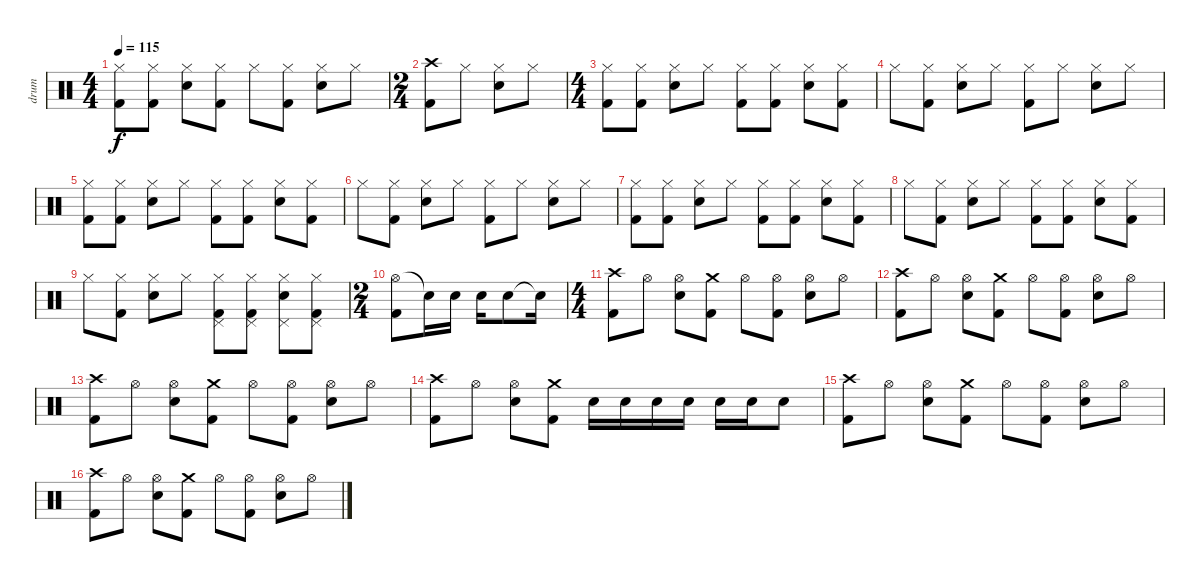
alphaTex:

\track ("drum" "drum") {instrument percussion}
\staff {score}
\articulation defaults
\ts (4 4)
\tempo 115
\clef neutral
\ks c
("Hi-Hat (closed)" "Kick (hit) 2").8{dy f} ("Hi-Hat (closed)" "Kick (hit) 2").8 ("Hi-Hat (closed)" "Snare (hit) 2").8 ("Hi-Hat (closed)" "Kick (hit) 2").8 "Hi-Hat (closed)".8 ("Hi-Hat (closed)" "Kick (hit) 2").8 ("Hi-Hat (closed)" "Snare (hit) 2").8 "Hi-Hat (closed)".8 |
\ts (2 4)
("Crash high (hit)" "Kick (hit) 2").8 "Hi-Hat (closed)".8 ("Hi-Hat (closed)" "Snare (hit) 2").8 "Hi-Hat (closed)".8 |
\ts (4 4)
("Hi-Hat (closed)" "Kick (hit) 2").8 ("Hi-Hat (closed)" "Kick (hit) 2").8 ("Hi-Hat (closed)" "Snare (hit) 2").8 "Hi-Hat (closed)".8 ("Hi-Hat (closed)" "Kick (hit) 2").8 ("Hi-Hat (closed)" "Kick (hit) 2").8 ("Hi-Hat (closed)" "Snare (hit) 2").8 ("Hi-Hat (closed)" "Kick (hit) 2").8 |
"Hi-Hat (closed)".8 ("Hi-Hat (closed)" "Kick (hit) 2").8 ("Hi-Hat (closed)" "Snare (hit) 2").8 "Hi-Hat (closed)".8 ("Hi-Hat (closed)" "Kick (hit) 2").8 "Hi-Hat (closed)".8 ("Hi-Hat (closed)" "Snare (hit) 2").8 "Hi-Hat (closed)".8 |
("Hi-Hat (closed)" "Kick (hit) 2").8 ("Hi-Hat (closed)" "Kick (hit) 2").8 ("Hi-Hat (closed)" "Snare (hit) 2").8 "Hi-Hat (closed)".8 ("Hi-Hat (closed)" "Kick (hit) 2").8 ("Hi-Hat (closed)" "Kick (hit) 2").8 ("Hi-Hat (closed)" "Snare (hit) 2").8 ("Hi-Hat (closed)" "Kick (hit) 2").8 |
"Hi-Hat (closed)".8 ("Hi-Hat (closed)" "Kick (hit) 2").8 ("Hi-Hat (closed)" "Snare (hit) 2").8 "Hi-Hat (closed)".8 ("Hi-Hat (closed)" "Kick (hit) 2").8 "Hi-Hat (closed)".8 ("Hi-Hat (closed)" "Snare (hit) 2").8 "Hi-Hat (closed)".8 |
("Hi-Hat (closed)" "Kick (hit) 2").8 ("Hi-Hat (closed)" "Kick (hit) 2").8 ("Hi-Hat (closed)" "Snare (hit) 2").8 "Hi-Hat (closed)".8 ("Hi-Hat (closed)" "Kick (hit) 2").8 ("Hi-Hat (closed)" "Kick (hit) 2").8 ("Hi-Hat (closed)" "Snare (hit) 2").8 ("Hi-Hat (closed)" "Kick (hit) 2").8 |
"Hi-Hat (closed)".8 ("Hi-Hat (closed)" "Kick (hit) 2").8 ("Hi-Hat (closed)" "Snare (hit) 2").8 "Hi-Hat (closed)".8 ("Hi-Hat (closed)" "Kick (hit) 2").8 ("Hi-Hat (closed)" "Kick (hit) 2").8 ("Hi-Hat (closed)" "Snare (hit) 2").8 ("Hi-Hat (closed)" "Kick (hit) 2").8 |
"Hi-Hat (closed)".8 ("Hi-Hat (closed)" "Kick (hit) 2").8 ("Hi-Hat (closed)" "Snare (hit) 2").8 "Hi-Hat (closed)".8 ("Hi-Hat (closed)" "Pedal Hi-Hat (hit)" "Kick (hit) 2").8 ("Hi-Hat (closed)" "Pedal Hi-Hat (hit)" "Kick (hit) 2").8 ("Hi-Hat (closed)" "Pedal Hi-Hat (hit)" "Electric Snare (hit)").8 ("Hi-Hat (closed)" "Pedal Hi-Hat (hit)" "Kick (hit) 2").8 |
\ts (2 4)
("Hi-Hat (open)" "Kick (hit) 2").8 "Snare (hit)"{t}.16 "Electric Snare (hit)".16 "Electric Snare (hit)".16 "Electric Snare (hit)".8 "Snare (hit)"{t}.16 |
\ts (4 4)
("Crash high (hit)" "Kick (hit) 2").8 "Hi-Hat (open)".8 ("Hi-Hat (open)" "Electric Snare (hit)").8 ("Crash medium (hit)" "Kick (hit) 2").8 "Hi-Hat (open)".8 ("Hi-Hat (open)" "Kick (hit) 2").8 ("Hi-Hat (open)" "Electric Snare (hit)").8 "Hi-Hat (open)".8 |
("Crash high (hit)" "Kick (hit) 2").8 "Hi-Hat (open)".8 ("Hi-Hat (open)" "Electric Snare (hit)").8 ("Crash medium (hit)" "Kick (hit) 2").8 "Hi-Hat (open)".8 ("Hi-Hat (open)" "Kick (hit) 2").8 ("Hi-Hat (open)" "Electric Snare (hit)").8 "Hi-Hat (open)".8 |
("Crash high (hit)" "Kick (hit) 2").8 "Hi-Hat (open)".8 ("Hi-Hat (open)" "Electric Snare (hit)").8 ("Crash medium (hit)" "Kick (hit) 2").8 "Hi-Hat (open)".8 ("Hi-Hat (open)" "Kick (hit) 2").8 ("Hi-Hat (open)" "Electric Snare (hit)").8 "Hi-Hat (open)".8 |
("Crash high (hit)" "Kick (hit) 2").8 "Hi-Hat (open)".8 ("Hi-Hat (open)" "Electric Snare (hit)").8 ("Crash medium (hit)" "Kick (hit) 2").8 "Snare (hit) 2".16 "Snare (hit) 2".16 "Snare (hit) 2".16 "Snare (hit) 2".16 "Snare (hit) 2".16 "Snare (hit) 2".16 "Snare (hit) 2".8 |
("Crash high (hit)" "Kick (hit) 2").8 "Hi-Hat (open)".8 ("Hi-Hat (open)" "Electric Snare (hit)").8 ("Crash medium (hit)" "Kick (hit) 2").8 "Hi-Hat (open)".8 ("Hi-Hat (open)" "Kick (hit) 2").8 ("Hi-Hat (open)" "Electric Snare (hit)").8 "Hi-Hat (open)".8 |
("Crash high (hit)" "Kick (hit) 2").8 "Hi-Hat (open)".8 ("Hi-Hat (open)" "Electric Snare (hit)").8 ("Crash medium (hit)" "Kick (hit) 2").8 "Hi-Hat (open)".8 ("Hi-Hat (open)" "Kick (hit) 2").8 ("Hi-Hat (open)" "Electric Snare (hit)").8 "Hi-Hat (open)".8
